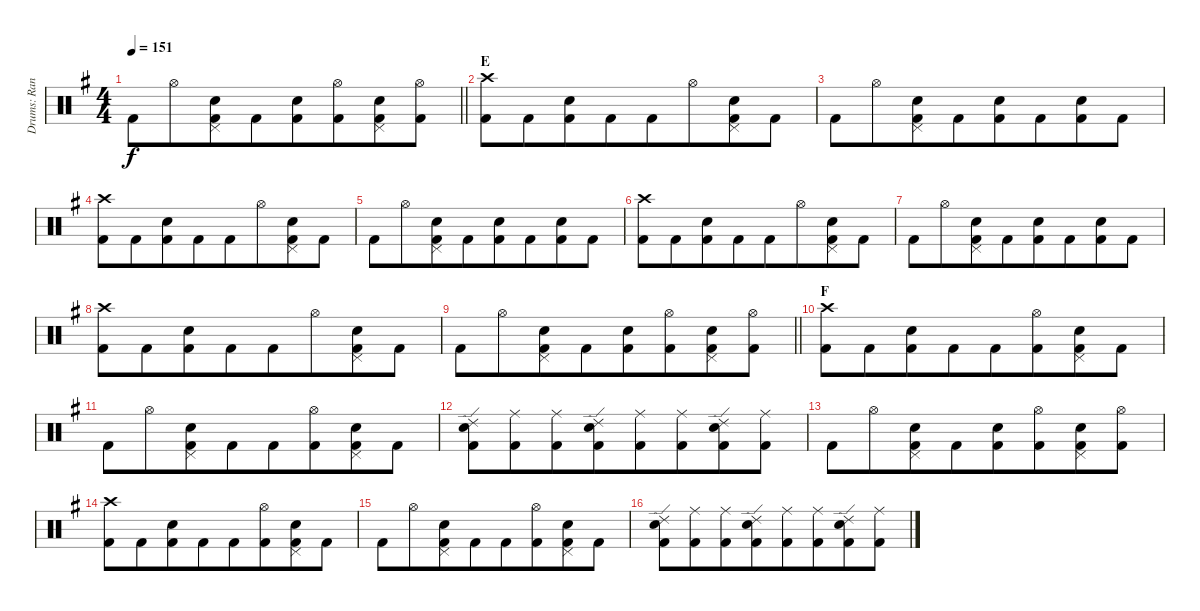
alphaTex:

\track ("Drums: Randy" "Drums: Ran") {instrument percussion}
\staff {score}
\articulation defaults
\ts (4 4)
\tempo 151
\clef neutral
\barLineRight lightlight
\ks g "Kick (hit) 2".8{dy f} "Hi-Hat (open)".8{beam merge}
("Pedal Hi-Hat (hit)" "Snare (hit) 2" "Kick (hit) 2").8 "Kick (hit) 2".8{beam merge} ("Snare (hit) 2" "Kick (hit) 2").8 ("Hi-Hat (open)" "Kick (hit) 2").8{beam merge} ("Pedal Hi-Hat (hit)" "Snare (hit) 2" "Kick (hit) 2").8 ("Hi-Hat (open)" "Kick (hit) 2").8 |
\section ("" "E")
("Crash high (hit)" "Kick (hit) 2").8 "Kick (hit) 2".8{beam merge} ("Snare (hit) 2" "Kick (hit) 2").8 "Kick (hit) 2".8{beam merge} "Kick (hit) 2".8 "Hi-Hat (open)".8{beam merge} ("Pedal Hi-Hat (hit)" "Snare (hit) 2" "Kick (hit) 2").8 "Kick (hit) 2".8 |
"Kick (hit) 2".8 "Hi-Hat (open)".8{beam merge} ("Pedal Hi-Hat (hit)" "Snare (hit) 2" "Kick (hit) 2").8 "Kick (hit) 2".8{beam merge} ("Snare (hit) 2" "Kick (hit) 2").8 "Kick (hit) 2".8{beam merge} ("Snare (hit) 2" "Kick (hit) 2").8 "Kick (hit) 2".8 |
("Crash high (hit)" "Kick (hit) 2").8 "Kick (hit) 2".8{beam merge} ("Snare (hit) 2" "Kick (hit) 2").8 "Kick (hit) 2".8{beam merge} "Kick (hit) 2".8 "Hi-Hat (open)".8{beam merge} ("Pedal Hi-Hat (hit)" "Snare (hit) 2" "Kick (hit) 2").8 "Kick (hit) 2".8 |
"Kick (hit) 2".8 "Hi-Hat (open)".8{beam merge} ("Pedal Hi-Hat (hit)" "Snare (hit) 2" "Kick (hit) 2").8 "Kick (hit) 2".8{beam merge} ("Snare (hit) 2" "Kick (hit) 2").8 "Kick (hit) 2".8{beam merge} ("Snare (hit) 2" "Kick (hit) 2").8 "Kick (hit) 2".8 |
("Crash high (hit)" "Kick (hit) 2").8 "Kick (hit) 2".8{beam merge} ("Snare (hit) 2" "Kick (hit) 2").8 "Kick (hit) 2".8{beam merge} "Kick (hit) 2".8 "Hi-Hat (open)".8{beam merge} ("Pedal Hi-Hat (hit)" "Snare (hit) 2" "Kick (hit) 2").8 "Kick (hit) 2".8 |
"Kick (hit) 2".8 "Hi-Hat (open)".8{beam merge} ("Pedal Hi-Hat (hit)" "Snare (hit) 2" "Kick (hit) 2").8 "Kick (hit) 2".8{beam merge} ("Snare (hit) 2" "Kick (hit) 2").8 "Kick (hit) 2".8{beam merge} ("Snare (hit) 2" "Kick (hit) 2").8 "Kick (hit) 2".8 |
("Crash high (hit)" "Kick (hit) 2").8 "Kick (hit) 2".8{beam merge} ("Snare (hit) 2" "Kick (hit) 2").8 "Kick (hit) 2".8{beam merge} "Kick (hit) 2".8 "Hi-Hat (open)".8{beam merge} ("Pedal Hi-Hat (hit)" "Snare (hit) 2" "Kick (hit) 2").8 "Kick (hit) 2".8 |
\barLineRight lightlight "Kick (hit) 2".8 "Hi-Hat (open)".8{beam merge}
("Pedal Hi-Hat (hit)" "Snare (hit) 2" "Kick (hit) 2").8 "Kick (hit) 2".8{beam merge} ("Snare (hit) 2" "Kick (hit) 2").8 ("Hi-Hat (open)" "Kick (hit) 2").8{beam merge} ("Pedal Hi-Hat (hit)" "Snare (hit) 2" "Kick (hit) 2").8 ("Hi-Hat (open)" "Kick (hit) 2").8 |
\section ("" "F")
("Crash high (hit)" "Kick (hit) 2").8 "Kick (hit) 2".8{beam merge} ("Snare (hit) 2" "Kick (hit) 2").8 "Kick (hit) 2".8{beam merge} "Kick (hit) 2".8 ("Hi-Hat (open)" "Kick (hit) 2").8{beam merge} ("Pedal Hi-Hat (hit)" "Snare (hit) 2" "Kick (hit) 2").8 "Kick (hit) 2".8 |
"Kick (hit) 2".8 "Hi-Hat (open)".8{beam merge} ("Pedal Hi-Hat (hit)" "Snare (hit) 2" "Kick (hit) 2").8 "Kick (hit) 2".8{beam merge} "Kick (hit) 2".8 ("Hi-Hat (open)" "Kick (hit) 2").8{beam merge} ("Pedal Hi-Hat (hit)" "Snare (hit) 2" "Kick (hit) 2").8 "Kick (hit) 2".8 |
("Ride (edge) 2" "Snare (hit) 2" "Kick (hit) 2").8 ("Ride (middle)" "Kick (hit) 2").8{beam merge} ("Ride (middle)" "Kick (hit) 2").8 ("Ride (edge) 2" "Snare (hit) 2" "Kick (hit) 2").8{beam merge} ("Ride (middle)" "Kick (hit) 2").8 ("Ride (middle)" "Kick (hit) 2").8{beam merge} ("Ride (edge) 2" "Snare (hit) 2" "Kick (hit) 2").8 ("Ride (middle)" "Kick (hit) 2").8 |
"Kick (hit) 2".8 "Hi-Hat (open)".8{beam merge} ("Pedal Hi-Hat (hit)" "Snare (hit) 2" "Kick (hit) 2").8 "Kick (hit) 2".8{beam merge} ("Snare (hit) 2" "Kick (hit) 2").8 ("Hi-Hat (open)" "Kick (hit) 2").8{beam merge} ("Pedal Hi-Hat (hit)" "Snare (hit) 2" "Kick (hit) 2").8 ("Hi-Hat (open)" "Kick (hit) 2").8 |
("Crash high (hit)" "Kick (hit) 2").8 "Kick (hit) 2".8{beam merge} ("Snare (hit) 2" "Kick (hit) 2").8 "Kick (hit) 2".8{beam merge} "Kick (hit) 2".8 ("Hi-Hat (open)" "Kick (hit) 2").8{beam merge} ("Pedal Hi-Hat (hit)" "Snare (hit) 2" "Kick (hit) 2").8 "Kick (hit) 2".8 |
"Kick (hit) 2".8 "Hi-Hat (open)".8{beam merge} ("Pedal Hi-Hat (hit)" "Snare (hit) 2" "Kick (hit) 2").8 "Kick (hit) 2".8{beam merge} "Kick (hit) 2".8 ("Hi-Hat (open)" "Kick (hit) 2").8{beam merge} ("Pedal Hi-Hat (hit)" "Snare (hit) 2" "Kick (hit) 2").8 "Kick (hit) 2".8 |
("Ride (edge) 2" "Snare (hit) 2" "Kick (hit) 2").8 ("Ride (middle)" "Kick (hit) 2").8{beam merge} ("Ride (middle)" "Kick (hit) 2").8 ("Ride (edge) 2" "Snare (hit) 2" "Kick (hit) 2").8{beam merge} ("Ride (middle)" "Kick (hit) 2").8 ("Ride (middle)" "Kick (hit) 2").8{beam merge} ("Ride (edge) 2" "Snare (hit) 2" "Kick (hit) 2").8 ("Ride (middle)" "Kick (hit) 2").8
